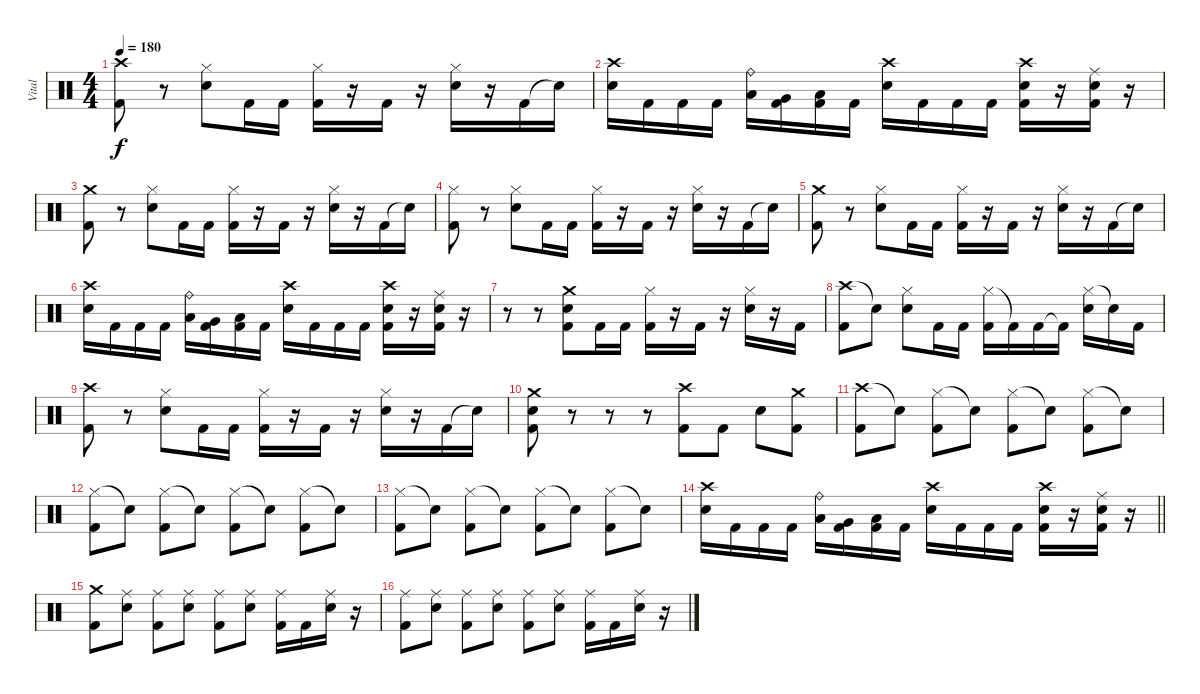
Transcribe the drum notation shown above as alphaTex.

\track ("Vital" "Vital") {instrument percussion}
\staff {score}
\articulation defaults
\ts (4 4)
\tempo 180
\clef neutral
\ks c
("Crash high (hit)" "Kick (hit) 2").8{dy f} r.8 ("Hi-Hat (closed)" "Snare (hit) 2").8 "Kick (hit) 2".16 "Kick (hit) 2".16 ("Hi-Hat (closed)" "Kick (hit) 2").16 r.16 "Kick (hit) 2".16 r.16 ("Hi-Hat (closed)" "Snare (hit) 2").16 r.16 "Kick (hit) 2".16 "Snare (hit)"{t}.16 |
("Snare (hit) 2" "Crash high (hit)").16 "Kick (hit) 2".16 "Kick (hit) 2".16 "Kick (hit) 2".16 ("Low Tom (hit)" "Ride (bell)").16 ("Very Low Tom (hit)" "Kick (hit) 2").16 ("Low Floor Tom (hit)" "Kick (hit) 2").16 "Kick (hit) 2".16 ("Snare (hit) 2" "Crash high (hit)").16 "Kick (hit) 2".16 "Kick (hit) 2".16 "Kick (hit) 2".16 ("Crash high (hit)" "Snare (hit) 2" "Kick (hit) 2").16 r.16 ("Ride (middle)" "Snare (hit) 2" "Kick (hit) 2").16 r.16 |
("Crash medium (hit)" "Kick (hit) 2").8 r.8 ("Hi-Hat (closed)" "Snare (hit) 2").8 "Kick (hit) 2".16 "Kick (hit) 2".16 ("Hi-Hat (closed)" "Kick (hit) 2").16 r.16 "Kick (hit) 2".16 r.16 ("Hi-Hat (closed)" "Snare (hit) 2").16 r.16 "Kick (hit) 2".16 "Snare (hit)"{t}.16 |
("Hi-Hat (closed)" "Kick (hit) 2").8 r.8 ("Hi-Hat (closed)" "Snare (hit) 2").8 "Kick (hit) 2".16 "Kick (hit) 2".16 ("Hi-Hat (closed)" "Kick (hit) 2").16 r.16 "Kick (hit) 2".16 r.16 ("Hi-Hat (closed)" "Snare (hit) 2").16 r.16 "Kick (hit) 2".16 "Snare (hit)"{t}.16 |
("Crash medium (hit)" "Kick (hit) 2").8 r.8 ("Hi-Hat (closed)" "Snare (hit) 2").8 "Kick (hit) 2".16 "Kick (hit) 2".16 ("Hi-Hat (closed)" "Kick (hit) 2").16 r.16 "Kick (hit) 2".16 r.16 ("Hi-Hat (closed)" "Snare (hit) 2").16 r.16 "Kick (hit) 2".16 "Snare (hit)"{t}.16 |
("Snare (hit) 2" "Crash high (hit)").16 "Kick (hit) 2".16 "Kick (hit) 2".16 "Kick (hit) 2".16 ("Low Tom (hit)" "Ride (bell)").16 ("Very Low Tom (hit)" "Kick (hit) 2").16 ("Low Floor Tom (hit)" "Kick (hit) 2").16 "Kick (hit) 2".16 ("Snare (hit) 2" "Crash high (hit)").16 "Kick (hit) 2".16 "Kick (hit) 2".16 "Kick (hit) 2".16 ("Crash high (hit)" "Snare (hit) 2" "Kick (hit) 2").16 r.16 ("Ride (middle)" "Snare (hit) 2" "Kick (hit) 2").16 r.16 |
r.8 r.8 ("Crash medium (hit)" "Snare (hit) 2" "Kick (hit) 2").8 "Kick (hit) 2".16 "Kick (hit) 2".16 ("Hi-Hat (closed)" "Kick (hit) 2").16 r.16 "Kick (hit) 2".16 r.16 ("Hi-Hat (closed)" "Snare (hit) 2").16 r.16 "Kick (hit) 2".16 |
("Crash high (hit)" "Kick (hit) 2").8 "Electric Snare (hit)"{t}.8 ("Hi-Hat (closed)" "Snare (hit) 2").8 "Kick (hit) 2".16 "Kick (hit) 2".16 ("Hi-Hat (closed)" "Kick (hit) 2").16 "Kick (hit) 2"{t}.16 "Kick (hit) 2".16 "Kick (hit) 2"{t}.16 ("Hi-Hat (closed)" "Snare (hit) 2").16 "Electric Snare (hit)"{t}.16 "Kick (hit) 2".16 |
("Crash high (hit)" "Kick (hit) 2").8 r.8 ("Hi-Hat (closed)" "Snare (hit) 2").8 "Kick (hit) 2".16 "Kick (hit) 2".16 ("Hi-Hat (closed)" "Kick (hit) 2").16 r.16 "Kick (hit) 2".16 r.16 ("Hi-Hat (closed)" "Snare (hit) 2").16 r.16 "Kick (hit) 2".16 "Snare (hit)"{t}.16 |
("Crash medium (hit)" "Snare (hit) 2" "Kick (hit) 2").8 r.8 r.8 r.8 ("Crash high (hit)" "Kick (hit) 2").8 "Kick (hit) 2".8 "Snare (hit) 2".8 ("Crash medium (hit)" "Kick (hit) 2").8 |
("Crash high (hit)" "Kick (hit) 2").8 "Snare (hit)"{t}.8 ("Hi-Hat (closed)" "Kick (hit) 2").8 "Snare (hit)"{t}.8 ("Hi-Hat (closed)" "Kick (hit) 2").8 "Snare (hit)"{t}.8 ("Hi-Hat (closed)" "Kick (hit) 2").8 "Snare (hit)"{t}.8 |
("Hi-Hat (closed)" "Kick (hit) 2").8 "Snare (hit)"{t}.8 ("Hi-Hat (closed)" "Kick (hit) 2").8 "Snare (hit)"{t}.8 ("Hi-Hat (closed)" "Kick (hit) 2").8 "Snare (hit)"{t}.8 ("Hi-Hat (closed)" "Kick (hit) 2").8 "Snare (hit)"{t}.8 |
("Hi-Hat (closed)" "Kick (hit) 2").8 "Snare (hit)"{t}.8 ("Hi-Hat (closed)" "Kick (hit) 2").8 "Snare (hit)"{t}.8 ("Hi-Hat (closed)" "Kick (hit) 2").8 "Snare (hit)"{t}.8 ("Hi-Hat (closed)" "Kick (hit) 2").8 "Snare (hit)"{t}.8 |
\barLineRight lightlight
("Snare (hit) 2" "Crash high (hit)").16 "Kick (hit) 2".16 "Kick (hit) 2".16 "Kick (hit) 2".16 ("Low Tom (hit)" "Ride (bell)").16 ("Very Low Tom (hit)" "Kick (hit) 2").16 ("Low Floor Tom (hit)" "Kick (hit) 2").16 "Kick (hit) 2".16 ("Snare (hit) 2" "Crash high (hit)").16 "Kick (hit) 2".16 "Kick (hit) 2".16 "Kick (hit) 2".16 ("Crash high (hit)" "Snare (hit) 2" "Kick (hit) 2").16 r.16 ("Ride (middle)" "Snare (hit) 2" "Kick (hit) 2").16 r.16 |
("Crash medium (hit)" "Kick (hit) 2").8 ("Ride (middle)" "Snare (hit) 2").8 ("Ride (middle)" "Kick (hit) 2").8 ("Ride (middle)" "Snare (hit) 2").8 ("Ride (middle)" "Kick (hit) 2").8 ("Ride (middle)" "Snare (hit) 2").8 ("Ride (middle)" "Kick (hit) 2").16 "Kick (hit) 2".16 ("Ride (middle)" "Snare (hit) 2").16 r.16 |
("Ride (middle)" "Kick (hit) 2").8 ("Ride (middle)" "Snare (hit) 2").8 ("Ride (middle)" "Kick (hit) 2").8 ("Ride (middle)" "Snare (hit) 2").8 ("Ride (middle)" "Kick (hit) 2").8 ("Ride (middle)" "Snare (hit) 2").8 ("Ride (middle)" "Kick (hit) 2").16 "Kick (hit) 2".16 ("Ride (middle)" "Snare (hit) 2").16 r.16
